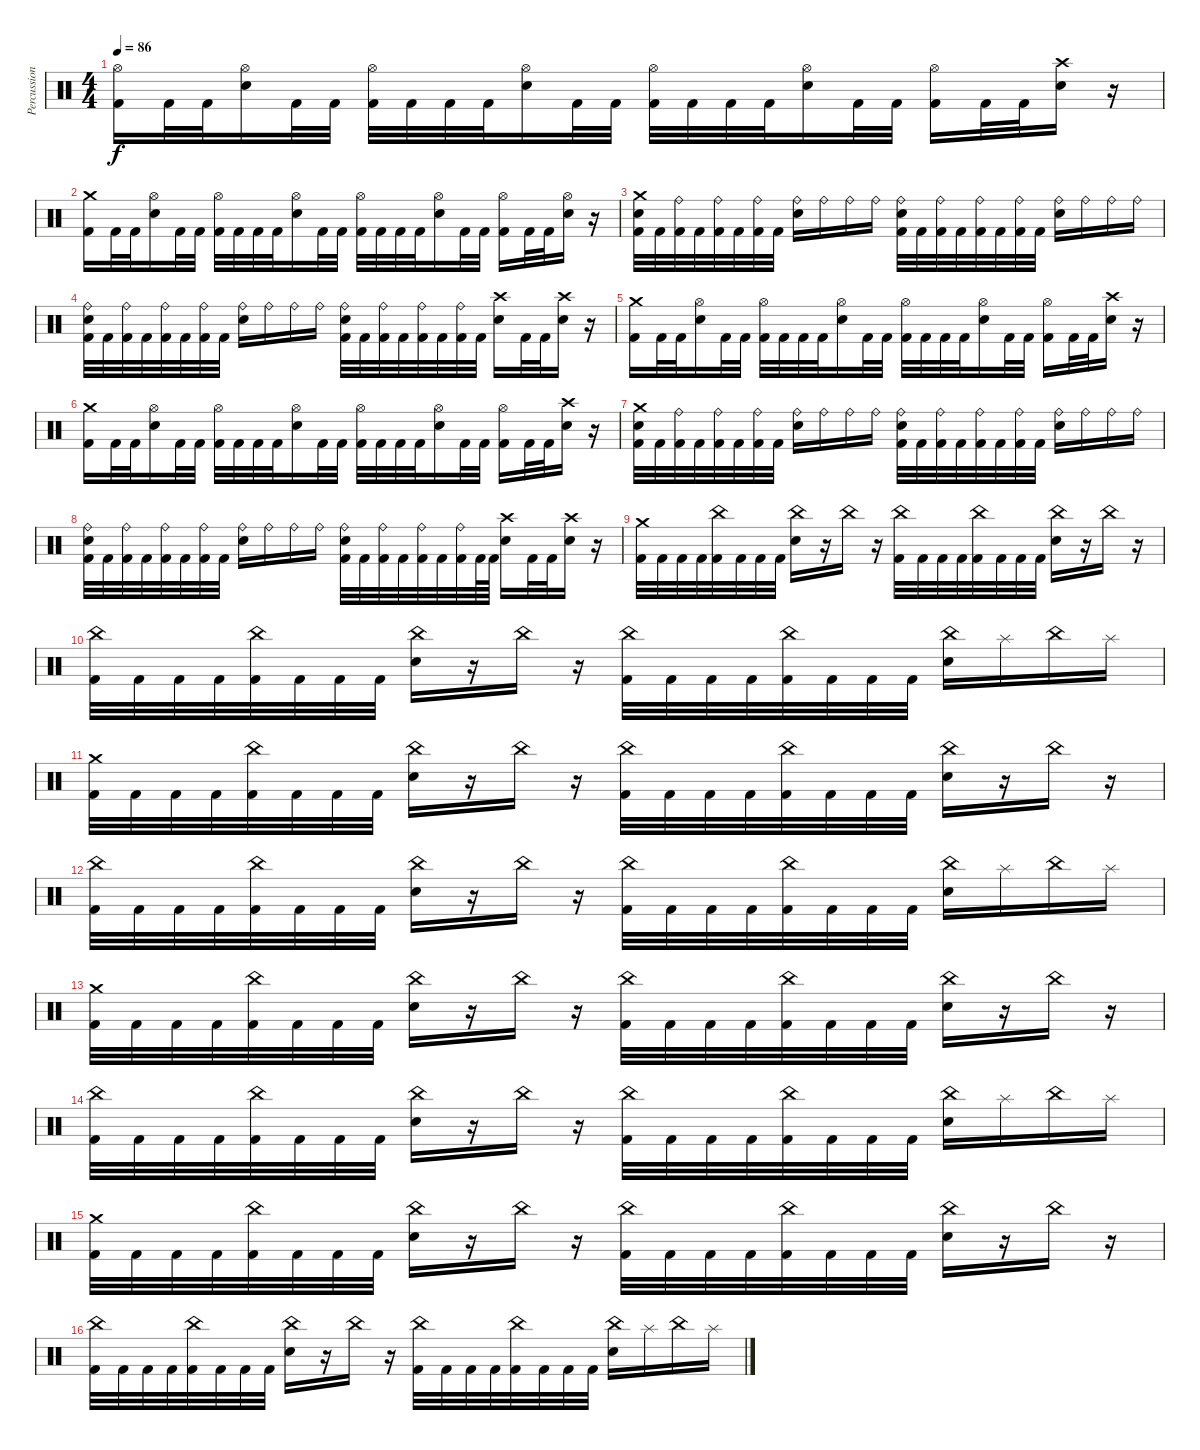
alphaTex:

\track ("Percussion" "Percussion") {instrument percussion}
\staff {score}
\articulation defaults
\ts (4 4)
\tempo 86
\clef neutral
\ks c
("Hi-Hat (open)" "Kick (hit) 2").16{dy f} "Kick (hit) 2".32 "Kick (hit) 2".32 ("Hi-Hat (open)" "Electric Snare (hit)").16 "Kick (hit) 2".32 "Kick (hit) 2".32 ("Hi-Hat (open)" "Kick (hit) 2").32 "Kick (hit) 2".32 "Kick (hit) 2".32 "Kick (hit) 2".32 ("Hi-Hat (open)" "Electric Snare (hit)").16 "Kick (hit) 2".32 "Kick (hit) 2".32 ("Hi-Hat (open)" "Kick (hit) 2").32 "Kick (hit) 2".32 "Kick (hit) 2".32 "Kick (hit) 2".32 ("Hi-Hat (open)" "Electric Snare (hit)").16 "Kick (hit) 2".32 "Kick (hit) 2".32 ("Hi-Hat (open)" "Kick (hit) 2").16 "Kick (hit) 2".32 "Kick (hit) 2".32 ("Crash high (hit)" "Electric Snare (hit)").16 r.16 |
("Crash medium (hit)" "Kick (hit) 2").16 "Kick (hit) 2".32 "Kick (hit) 2".32 ("Hi-Hat (open)" "Electric Snare (hit)").16 "Kick (hit) 2".32 "Kick (hit) 2".32 ("Hi-Hat (open)" "Kick (hit) 2").32 "Kick (hit) 2".32 "Kick (hit) 2".32 "Kick (hit) 2".32 ("Hi-Hat (open)" "Electric Snare (hit)").16 "Kick (hit) 2".32 "Kick (hit) 2".32 ("Hi-Hat (open)" "Kick (hit) 2").32 "Kick (hit) 2".32 "Kick (hit) 2".32 "Kick (hit) 2".32 ("Hi-Hat (open)" "Electric Snare (hit)").16 "Kick (hit) 2".32 "Kick (hit) 2".32 ("Hi-Hat (open)" "Kick (hit) 2").16 "Kick (hit) 2".32 "Kick (hit) 2".32 ("Hi-Hat (open)" "Electric Snare (hit)").16 r.16 |
("Crash medium (hit)" "Electric Snare (hit)" "Kick (hit) 2").32 "Kick (hit) 2".32 ("Ride (bell)" "Kick (hit) 2").32 "Kick (hit) 2".32 ("Ride (bell)" "Kick (hit) 2").32 "Kick (hit) 2".32 ("Ride (bell)" "Kick (hit) 2").32 "Kick (hit) 2".32 ("Ride (bell)" "Electric Snare (hit)").16 "Ride (bell)".16 "Ride (bell)".16 "Ride (bell)".16 ("Ride (bell)" "Electric Snare (hit)" "Kick (hit) 2").32 "Kick (hit) 2".32 ("Ride (bell)" "Kick (hit) 2").32 "Kick (hit) 2".32 ("Ride (bell)" "Kick (hit) 2").32 "Kick (hit) 2".32 ("Ride (bell)" "Kick (hit) 2").32 "Kick (hit) 2".32 ("Ride (bell)" "Electric Snare (hit)").16 "Ride (bell)".16 "Ride (bell)".16 "Ride (bell)".16 |
("Ride (bell)" "Electric Snare (hit)" "Kick (hit) 2").32 "Kick (hit) 2".32 ("Ride (bell)" "Kick (hit) 2").32 "Kick (hit) 2".32 ("Ride (bell)" "Kick (hit) 2").32 "Kick (hit) 2".32 ("Ride (bell)" "Kick (hit) 2").32 "Kick (hit) 2".32 ("Ride (bell)" "Electric Snare (hit)").16 "Ride (bell)".16 "Ride (bell)".16 "Ride (bell)".16 ("Ride (bell)" "Electric Snare (hit)" "Kick (hit) 2").32 "Kick (hit) 2".32 ("Ride (bell)" "Kick (hit) 2").32 "Kick (hit) 2".32 ("Ride (bell)" "Kick (hit) 2").32 "Kick (hit) 2".32 ("Ride (bell)" "Kick (hit) 2").32 "Kick (hit) 2".32 ("Crash high (hit)" "Electric Snare (hit)").16 "Kick (hit) 2".32 "Kick (hit) 2".32 ("Crash high (hit)" "Electric Snare (hit)").16 r.16 |
("Crash medium (hit)" "Kick (hit) 2").16 "Kick (hit) 2".32 "Kick (hit) 2".32 ("Hi-Hat (open)" "Electric Snare (hit)").16 "Kick (hit) 2".32 "Kick (hit) 2".32 ("Hi-Hat (open)" "Kick (hit) 2").32 "Kick (hit) 2".32 "Kick (hit) 2".32 "Kick (hit) 2".32 ("Hi-Hat (open)" "Electric Snare (hit)").16 "Kick (hit) 2".32 "Kick (hit) 2".32 ("Hi-Hat (open)" "Kick (hit) 2").32 "Kick (hit) 2".32 "Kick (hit) 2".32 "Kick (hit) 2".32 ("Hi-Hat (open)" "Electric Snare (hit)").16 "Kick (hit) 2".32 "Kick (hit) 2".32 ("Hi-Hat (open)" "Kick (hit) 2").16 "Kick (hit) 2".32 "Kick (hit) 2".32 ("Crash high (hit)" "Electric Snare (hit)").16 r.16 |
("Crash medium (hit)" "Kick (hit) 2").16 "Kick (hit) 2".32 "Kick (hit) 2".32 ("Hi-Hat (open)" "Electric Snare (hit)").16 "Kick (hit) 2".32 "Kick (hit) 2".32 ("Hi-Hat (open)" "Kick (hit) 2").32 "Kick (hit) 2".32 "Kick (hit) 2".32 "Kick (hit) 2".32 ("Hi-Hat (open)" "Electric Snare (hit)").16 "Kick (hit) 2".32 "Kick (hit) 2".32 ("Hi-Hat (open)" "Kick (hit) 2").32 "Kick (hit) 2".32 "Kick (hit) 2".32 "Kick (hit) 2".32 ("Hi-Hat (open)" "Electric Snare (hit)").16 "Kick (hit) 2".32 "Kick (hit) 2".32 ("Hi-Hat (open)" "Kick (hit) 2").16 "Kick (hit) 2".32 "Kick (hit) 2".32 ("Crash high (hit)" "Electric Snare (hit)").16 r.16 |
("Crash medium (hit)" "Electric Snare (hit)" "Kick (hit) 2").32 "Kick (hit) 2".32 ("Ride (bell)" "Kick (hit) 2").32 "Kick (hit) 2".32 ("Ride (bell)" "Kick (hit) 2").32 "Kick (hit) 2".32 ("Ride (bell)" "Kick (hit) 2").32 "Kick (hit) 2".32 ("Ride (bell)" "Electric Snare (hit)").16 "Ride (bell)".16 "Ride (bell)".16 "Ride (bell)".16 ("Ride (bell)" "Electric Snare (hit)" "Kick (hit) 2").32 "Kick (hit) 2".32 ("Ride (bell)" "Kick (hit) 2").32 "Kick (hit) 2".32 ("Ride (bell)" "Kick (hit) 2").32 "Kick (hit) 2".32 ("Ride (bell)" "Kick (hit) 2").32 "Kick (hit) 2".32 ("Ride (bell)" "Electric Snare (hit)").16 "Ride (bell)".16 "Ride (bell)".16 "Ride (bell)".16 |
("Ride (bell)" "Electric Snare (hit)" "Kick (hit) 2").32 "Kick (hit) 2".32 ("Ride (bell)" "Kick (hit) 2").32 "Kick (hit) 2".32 ("Ride (bell)" "Kick (hit) 2").32 "Kick (hit) 2".32 ("Ride (bell)" "Kick (hit) 2").32 "Kick (hit) 2".32 ("Ride (bell)" "Electric Snare (hit)").16 "Ride (bell)".16 "Ride (bell)".16 "Ride (bell)".16 ("Ride (bell)" "Electric Snare (hit)" "Kick (hit) 2").32 "Kick (hit) 2".32 ("Ride (bell)" "Kick (hit) 2").32 "Kick (hit) 2".32 ("Ride (bell)" "Kick (hit) 2").32 "Kick (hit) 2".32 ("Ride (bell)" "Kick (hit) 2").32 "Kick (hit) 2".64 "Kick (hit) 2".64 ("Crash high (hit)" "Electric Snare (hit)").16 "Kick (hit) 2".32 "Kick (hit) 2".32 ("Crash high (hit)" "Electric Snare (hit)").16 r.16 |
("Crash medium (hit)" "Kick (hit) 2").32 "Kick (hit) 2".32 "Kick (hit) 2".32 "Kick (hit) 2".32 ("China (hit)" "Kick (hit) 2").32 "Kick (hit) 2".32 "Kick (hit) 2".32 "Kick (hit) 2".32 ("China (hit)" "Electric Snare (hit)").16 r.16 "China (hit)".16 r.16 ("China (hit)" "Kick (hit) 2").32 "Kick (hit) 2".32 "Kick (hit) 2".32 "Kick (hit) 2".32 ("China (hit)" "Kick (hit) 2").32 "Kick (hit) 2".32 "Kick (hit) 2".32 "Kick (hit) 2".32 ("China (hit)" "Electric Snare (hit)").16 r.16 "China (hit)".16 r.16 |
("China (hit)" "Kick (hit) 2").32 "Kick (hit) 2".32 "Kick (hit) 2".32 "Kick (hit) 2".32 ("China (hit)" "Kick (hit) 2").32 "Kick (hit) 2".32 "Kick (hit) 2".32 "Kick (hit) 2".32 ("China (hit)" "Electric Snare (hit)").16 r.16 "China (hit)".16 r.16 ("China (hit)" "Kick (hit) 2").32 "Kick (hit) 2".32 "Kick (hit) 2".32 "Kick (hit) 2".32 ("China (hit)" "Kick (hit) 2").32 "Kick (hit) 2".32 "Kick (hit) 2".32 "Kick (hit) 2".32 ("China (hit)" "Electric Snare (hit)").16 "Splash (hit)".16 "China (hit)".16 "Splash (hit)".16 |
("Crash medium (hit)" "Kick (hit) 2").32 "Kick (hit) 2".32 "Kick (hit) 2".32 "Kick (hit) 2".32 ("China (hit)" "Kick (hit) 2").32 "Kick (hit) 2".32 "Kick (hit) 2".32 "Kick (hit) 2".32 ("China (hit)" "Electric Snare (hit)").16 r.16 "China (hit)".16 r.16 ("China (hit)" "Kick (hit) 2").32 "Kick (hit) 2".32 "Kick (hit) 2".32 "Kick (hit) 2".32 ("China (hit)" "Kick (hit) 2").32 "Kick (hit) 2".32 "Kick (hit) 2".32 "Kick (hit) 2".32 ("China (hit)" "Electric Snare (hit)").16 r.16 "China (hit)".16 r.16 |
("China (hit)" "Kick (hit) 2").32 "Kick (hit) 2".32 "Kick (hit) 2".32 "Kick (hit) 2".32 ("China (hit)" "Kick (hit) 2").32 "Kick (hit) 2".32 "Kick (hit) 2".32 "Kick (hit) 2".32 ("China (hit)" "Electric Snare (hit)").16 r.16 "China (hit)".16 r.16 ("China (hit)" "Kick (hit) 2").32 "Kick (hit) 2".32 "Kick (hit) 2".32 "Kick (hit) 2".32 ("China (hit)" "Kick (hit) 2").32 "Kick (hit) 2".32 "Kick (hit) 2".32 "Kick (hit) 2".32 ("China (hit)" "Electric Snare (hit)").16 "Splash (hit)".16 "China (hit)".16 "Splash (hit)".16 |
("Crash medium (hit)" "Kick (hit) 2").32 "Kick (hit) 2".32 "Kick (hit) 2".32 "Kick (hit) 2".32 ("China (hit)" "Kick (hit) 2").32 "Kick (hit) 2".32 "Kick (hit) 2".32 "Kick (hit) 2".32 ("China (hit)" "Electric Snare (hit)").16 r.16 "China (hit)".16 r.16 ("China (hit)" "Kick (hit) 2").32 "Kick (hit) 2".32 "Kick (hit) 2".32 "Kick (hit) 2".32 ("China (hit)" "Kick (hit) 2").32 "Kick (hit) 2".32 "Kick (hit) 2".32 "Kick (hit) 2".32 ("China (hit)" "Electric Snare (hit)").16 r.16 "China (hit)".16 r.16 |
("China (hit)" "Kick (hit) 2").32 "Kick (hit) 2".32 "Kick (hit) 2".32 "Kick (hit) 2".32 ("China (hit)" "Kick (hit) 2").32 "Kick (hit) 2".32 "Kick (hit) 2".32 "Kick (hit) 2".32 ("China (hit)" "Electric Snare (hit)").16 r.16 "China (hit)".16 r.16 ("China (hit)" "Kick (hit) 2").32 "Kick (hit) 2".32 "Kick (hit) 2".32 "Kick (hit) 2".32 ("China (hit)" "Kick (hit) 2").32 "Kick (hit) 2".32 "Kick (hit) 2".32 "Kick (hit) 2".32 ("China (hit)" "Electric Snare (hit)").16 "Splash (hit)".16 "China (hit)".16 "Splash (hit)".16 |
("Crash medium (hit)" "Kick (hit) 2").32 "Kick (hit) 2".32 "Kick (hit) 2".32 "Kick (hit) 2".32 ("China (hit)" "Kick (hit) 2").32 "Kick (hit) 2".32 "Kick (hit) 2".32 "Kick (hit) 2".32 ("China (hit)" "Electric Snare (hit)").16 r.16 "China (hit)".16 r.16 ("China (hit)" "Kick (hit) 2").32 "Kick (hit) 2".32 "Kick (hit) 2".32 "Kick (hit) 2".32 ("China (hit)" "Kick (hit) 2").32 "Kick (hit) 2".32 "Kick (hit) 2".32 "Kick (hit) 2".32 ("China (hit)" "Electric Snare (hit)").16 r.16 "China (hit)".16 r.16 |
("China (hit)" "Kick (hit) 2").32 "Kick (hit) 2".32 "Kick (hit) 2".32 "Kick (hit) 2".32 ("China (hit)" "Kick (hit) 2").32 "Kick (hit) 2".32 "Kick (hit) 2".32 "Kick (hit) 2".32 ("China (hit)" "Electric Snare (hit)").16 r.16 "China (hit)".16 r.16 ("China (hit)" "Kick (hit) 2").32 "Kick (hit) 2".32 "Kick (hit) 2".32 "Kick (hit) 2".32 ("China (hit)" "Kick (hit) 2").32 "Kick (hit) 2".32 "Kick (hit) 2".32 "Kick (hit) 2".32 ("China (hit)" "Electric Snare (hit)").16 "Splash (hit)".16 "China (hit)".16 "Splash (hit)".16
